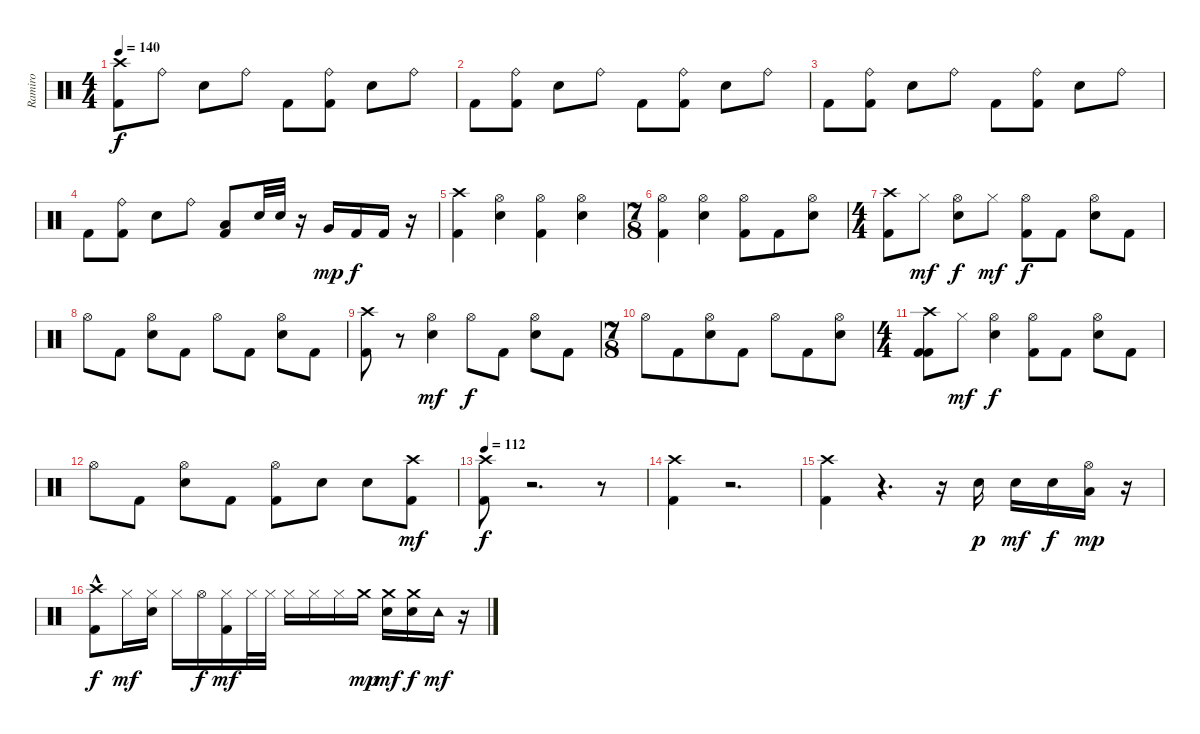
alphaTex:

\track ("Ramiro" "Ramiro") {instrument percussion}
\staff {score}
\articulation defaults
\ts (4 4)
\tempo 140
\clef neutral
\ks c
("Kick (hit) 2" "Crash high (hit)").8{dy f} "Ride (bell)".8 "Electric Snare (hit)".8 "Ride (bell)".8 "Kick (hit) 2".8 ("Ride (bell)" "Kick (hit) 2").8 "Electric Snare (hit)".8 "Ride (bell)".8 |
"Kick (hit) 2".8 ("Ride (bell)" "Kick (hit) 2").8 "Electric Snare (hit)".8 "Ride (bell)".8 "Kick (hit) 2".8 ("Ride (bell)" "Kick (hit) 2").8 "Electric Snare (hit)".8 "Ride (bell)".8 |
"Kick (hit) 2".8 ("Kick (hit) 2" "Ride (bell)").8 "Electric Snare (hit)".8 "Ride (bell)".8 "Kick (hit) 2".8 ("Ride (bell)" "Kick (hit) 2").8 "Electric Snare (hit)".8 "Ride (bell)".8 |
"Kick (hit) 2".8 ("Kick (hit) 2" "Ride (bell)").8 "Electric Snare (hit)".8 "Ride (bell)".8 ("Low Tom (hit)" "Kick (hit) 2").8 "Electric Snare (hit)".32 "Electric Snare (hit)".32 r.16 "Very Low Tom (hit)".16{dy mp} "Kick (hit) 2".16{dy f} "Kick (hit) 2".16 r.16 |
("Crash high (hit)" "Kick (hit) 2").4 ("Electric Snare (hit)" "Hi-Hat (open)").4 ("Kick (hit) 2" "Hi-Hat (open)").4 ("Electric Snare (hit)" "Hi-Hat (open)").4 |
\ts (7 8)
("Kick (hit) 2" "Hi-Hat (open)").4 ("Electric Snare (hit)" "Hi-Hat (open)").4 ("Hi-Hat (open)" "Kick (hit) 2").8 "Kick (hit) 2".8 ("Electric Snare (hit)" "Hi-Hat (open)").8 |
\ts (4 4)
("Kick (hit) 2" "Crash high (hit)").8 "Hi-Hat (closed)".8{dy mf} ("Electric Snare (hit)" "Hi-Hat (open)").8{dy f} "Hi-Hat (closed)".8{dy mf} ("Kick (hit) 2" "Hi-Hat (open)").8{dy f} "Kick (hit) 2".8 ("Electric Snare (hit)" "Hi-Hat (open)").8 "Kick (hit) 2".8 |
"Hi-Hat (open)".8 "Kick (hit) 2".8 ("Hi-Hat (open)" "Electric Snare (hit)").8 "Kick (hit) 2".8 "Hi-Hat (open)".8 "Kick (hit) 2".8 ("Hi-Hat (open)" "Electric Snare (hit)").8 "Kick (hit) 2".8 |
("Crash high (hit)" "Kick (hit) 2").8 r.8 ("Electric Snare (hit)" "Hi-Hat (open)").4{dy mf} "Hi-Hat (open)".8{dy f} "Kick (hit) 2".8 ("Electric Snare (hit)" "Hi-Hat (open)").8 "Kick (hit) 2".8 |
\ts (7 8)
"Hi-Hat (open)".8 "Kick (hit) 2".8 ("Hi-Hat (open)" "Electric Snare (hit)").8 "Kick (hit) 2".8 "Hi-Hat (open)".8 "Kick (hit) 2".8 ("Electric Snare (hit)" "Hi-Hat (open)").8 |
\ts (4 4)
("Kick (hit) 2" "Crash high (hit)" "Kick (hit) 2").8 "Hi-Hat (closed)".8{dy mf} ("Electric Snare (hit)" "Hi-Hat (open)").4{dy f} ("Kick (hit) 2" "Hi-Hat (open)").8 "Kick (hit) 2".8 ("Electric Snare (hit)" "Hi-Hat (open)").8 "Kick (hit) 2".8 |
"Hi-Hat (open)".8 "Kick (hit) 2".8 ("Hi-Hat (open)" "Electric Snare (hit)").8 "Kick (hit) 2".8 ("Hi-Hat (open)" "Kick (hit) 2").8 "Electric Snare (hit)".8 "Electric Snare (hit)".8 ("Kick (hit) 2" "Crash high (hit)").8{dy mf} |
\tempo 112
("Crash high (hit)" "Kick (hit) 2").8{dy f} r.2{d} r.8 |
("Crash high (hit)" "Kick (hit) 2").4 r.2{d} |
("Crash high (hit)" "Kick (hit) 2").4 r.4{d} r.16 "Electric Snare (hit)".16{dy p} "Electric Snare (hit)".16{dy mf} "Electric Snare (hit)".16{dy f} ("Low Tom (hit)" "Hi-Hat (open)").16{dy mp} r.16 |
("Crash high (hit)" "Kick (hit) 2"{hac}).8{dy f} "Hi-Hat (closed)".16{dy mf} ("Electric Snare (hit)" "Hi-Hat (closed)").16 "Hi-Hat (closed)".16 "Hi-Hat (open)".16{dy f} ("Kick (hit) 2" "Hi-Hat (closed)").16{dy mf} "Hi-Hat (closed)".32 "Hi-Hat (closed)".32 "Hi-Hat (closed)".16 "Hi-Hat (closed)".16 "Hi-Hat (closed)".16 "Crash medium (hit)".16{dy mp} ("Electric Snare (hit)" "Crash medium (hit)").16{dy mf} ("Electric Snare (hit)" "Crash medium (hit)").16{dy f} "Tambourine (hit)".16{dy mf} r.16
